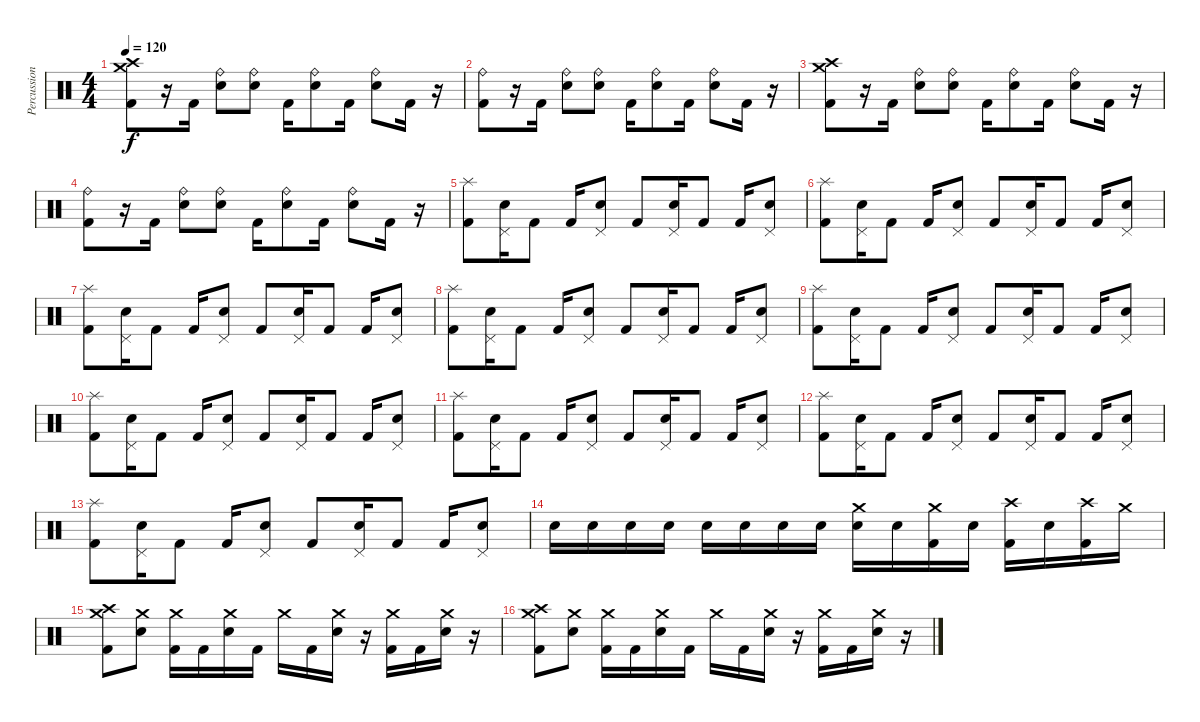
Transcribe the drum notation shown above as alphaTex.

\track ("Percussion" "Percussion") {instrument percussion}
\staff {score}
\articulation defaults
\ts (4 4)
\tempo 120
\clef neutral
\ks c
("Crash medium (hit)" "Crash high (hit)" "Kick (hit) 2").8{dy f} r.16 "Kick (hit) 2".16 ("Ride (bell)" "Electric Snare (hit)").8 ("Ride (bell)" "Electric Snare (hit)").8 "Kick (hit) 2".16 ("Ride (bell)" "Electric Snare (hit)").8 "Kick (hit) 2".16 ("Ride (bell)" "Electric Snare (hit)").8 "Kick (hit) 2".16 r.16 |
("Ride (bell)" "Kick (hit) 2").8 r.16 "Kick (hit) 2".16 ("Ride (bell)" "Electric Snare (hit)").8 ("Ride (bell)" "Electric Snare (hit)").8 "Kick (hit) 2".16 ("Ride (bell)" "Electric Snare (hit)").8 "Kick (hit) 2".16 ("Ride (bell)" "Electric Snare (hit)").8 "Kick (hit) 2".16 r.16 |
("Crash medium (hit)" "Crash high (hit)" "Kick (hit) 2").8 r.16 "Kick (hit) 2".16 ("Ride (bell)" "Electric Snare (hit)").8 ("Ride (bell)" "Electric Snare (hit)").8 "Kick (hit) 2".16 ("Ride (bell)" "Electric Snare (hit)").8 "Kick (hit) 2".16 ("Ride (bell)" "Electric Snare (hit)").8 "Kick (hit) 2".16 r.16 |
("Ride (bell)" "Kick (hit) 2").8 r.16 "Kick (hit) 2".16 ("Ride (bell)" "Electric Snare (hit)").8 ("Ride (bell)" "Electric Snare (hit)").8 "Kick (hit) 2".16 ("Ride (bell)" "Electric Snare (hit)").8 "Kick (hit) 2".16 ("Ride (bell)" "Electric Snare (hit)").8 "Kick (hit) 2".16 r.16 |
("Splash (hit)" "Kick (hit) 2").8 ("Pedal Hi-Hat (hit)" "Electric Snare (hit)").16 "Kick (hit) 2".8 "Kick (hit) 2".16 ("Pedal Hi-Hat (hit)" "Electric Snare (hit)").8 "Kick (hit) 2".8 ("Pedal Hi-Hat (hit)" "Electric Snare (hit)").16 "Kick (hit) 2".8 "Kick (hit) 2".16 ("Pedal Hi-Hat (hit)" "Electric Snare (hit)").8 |
("Splash (hit)" "Kick (hit) 2").8 ("Pedal Hi-Hat (hit)" "Electric Snare (hit)").16 "Kick (hit) 2".8 "Kick (hit) 2".16 ("Pedal Hi-Hat (hit)" "Electric Snare (hit)").8 "Kick (hit) 2".8 ("Pedal Hi-Hat (hit)" "Electric Snare (hit)").16 "Kick (hit) 2".8 "Kick (hit) 2".16 ("Pedal Hi-Hat (hit)" "Electric Snare (hit)").8 |
("Splash (hit)" "Kick (hit) 2").8 ("Pedal Hi-Hat (hit)" "Electric Snare (hit)").16 "Kick (hit) 2".8 "Kick (hit) 2".16 ("Pedal Hi-Hat (hit)" "Electric Snare (hit)").8 "Kick (hit) 2".8 ("Pedal Hi-Hat (hit)" "Electric Snare (hit)").16 "Kick (hit) 2".8 "Kick (hit) 2".16 ("Pedal Hi-Hat (hit)" "Electric Snare (hit)").8 |
("Splash (hit)" "Kick (hit) 2").8 ("Pedal Hi-Hat (hit)" "Electric Snare (hit)").16 "Kick (hit) 2".8 "Kick (hit) 2".16 ("Pedal Hi-Hat (hit)" "Electric Snare (hit)").8 "Kick (hit) 2".8 ("Pedal Hi-Hat (hit)" "Electric Snare (hit)").16 "Kick (hit) 2".8 "Kick (hit) 2".16 ("Pedal Hi-Hat (hit)" "Electric Snare (hit)").8 |
("Splash (hit)" "Kick (hit) 2").8 ("Pedal Hi-Hat (hit)" "Electric Snare (hit)").16 "Kick (hit) 2".8 "Kick (hit) 2".16 ("Pedal Hi-Hat (hit)" "Electric Snare (hit)").8 "Kick (hit) 2".8 ("Pedal Hi-Hat (hit)" "Electric Snare (hit)").16 "Kick (hit) 2".8 "Kick (hit) 2".16 ("Pedal Hi-Hat (hit)" "Electric Snare (hit)").8 |
("Splash (hit)" "Kick (hit) 2").8 ("Pedal Hi-Hat (hit)" "Electric Snare (hit)").16 "Kick (hit) 2".8 "Kick (hit) 2".16 ("Pedal Hi-Hat (hit)" "Electric Snare (hit)").8 "Kick (hit) 2".8 ("Pedal Hi-Hat (hit)" "Electric Snare (hit)").16 "Kick (hit) 2".8 "Kick (hit) 2".16 ("Pedal Hi-Hat (hit)" "Electric Snare (hit)").8 |
("Splash (hit)" "Kick (hit) 2").8 ("Pedal Hi-Hat (hit)" "Electric Snare (hit)").16 "Kick (hit) 2".8 "Kick (hit) 2".16 ("Pedal Hi-Hat (hit)" "Electric Snare (hit)").8 "Kick (hit) 2".8 ("Pedal Hi-Hat (hit)" "Electric Snare (hit)").16 "Kick (hit) 2".8 "Kick (hit) 2".16 ("Pedal Hi-Hat (hit)" "Electric Snare (hit)").8 |
("Splash (hit)" "Kick (hit) 2").8 ("Pedal Hi-Hat (hit)" "Electric Snare (hit)").16 "Kick (hit) 2".8 "Kick (hit) 2".16 ("Pedal Hi-Hat (hit)" "Electric Snare (hit)").8 "Kick (hit) 2".8 ("Pedal Hi-Hat (hit)" "Electric Snare (hit)").16 "Kick (hit) 2".8 "Kick (hit) 2".16 ("Pedal Hi-Hat (hit)" "Electric Snare (hit)").8 |
("Splash (hit)" "Kick (hit) 2").8 ("Pedal Hi-Hat (hit)" "Electric Snare (hit)").16 "Kick (hit) 2".8 "Kick (hit) 2".16 ("Pedal Hi-Hat (hit)" "Electric Snare (hit)").8 "Kick (hit) 2".8 ("Pedal Hi-Hat (hit)" "Electric Snare (hit)").16 "Kick (hit) 2".8 "Kick (hit) 2".16 ("Pedal Hi-Hat (hit)" "Electric Snare (hit)").8 |
"Electric Snare (hit)".16 "Electric Snare (hit)".16 "Electric Snare (hit)".16 "Electric Snare (hit)".16 "Electric Snare (hit)".16 "Electric Snare (hit)".16 "Electric Snare (hit)".16 "Electric Snare (hit)".16 ("Crash medium (hit)" "Electric Snare (hit)").16 "Electric Snare (hit)".16 ("Crash medium (hit)" "Kick (hit) 2").16 "Electric Snare (hit)".16 ("Crash high (hit)" "Kick (hit) 2").16 "Electric Snare (hit)".16 ("Crash high (hit)" "Kick (hit) 2").16 "Crash medium (hit)".16 |
("Crash medium (hit)" "Crash high (hit)" "Kick (hit) 2").8 ("Crash medium (hit)" "Electric Snare (hit)").8 ("Crash medium (hit)" "Kick (hit) 2").16 "Kick (hit) 2".16 ("Crash medium (hit)" "Electric Snare (hit)").16 "Kick (hit) 2".16 "Crash medium (hit)".16 "Kick (hit) 2".16 ("Crash medium (hit)" "Electric Snare (hit)").16 r.16 ("Crash medium (hit)" "Kick (hit) 2").16 "Kick (hit) 2".16 ("Crash medium (hit)" "Electric Snare (hit)").16 r.16 |
("Crash medium (hit)" "Crash high (hit)" "Kick (hit) 2").8 ("Crash medium (hit)" "Electric Snare (hit)").8 ("Crash medium (hit)" "Kick (hit) 2").16 "Kick (hit) 2".16 ("Crash medium (hit)" "Electric Snare (hit)").16 "Kick (hit) 2".16 "Crash medium (hit)".16 "Kick (hit) 2".16 ("Crash medium (hit)" "Electric Snare (hit)").16 r.16 ("Crash medium (hit)" "Kick (hit) 2").16 "Kick (hit) 2".16 ("Crash medium (hit)" "Electric Snare (hit)").16 r.16
